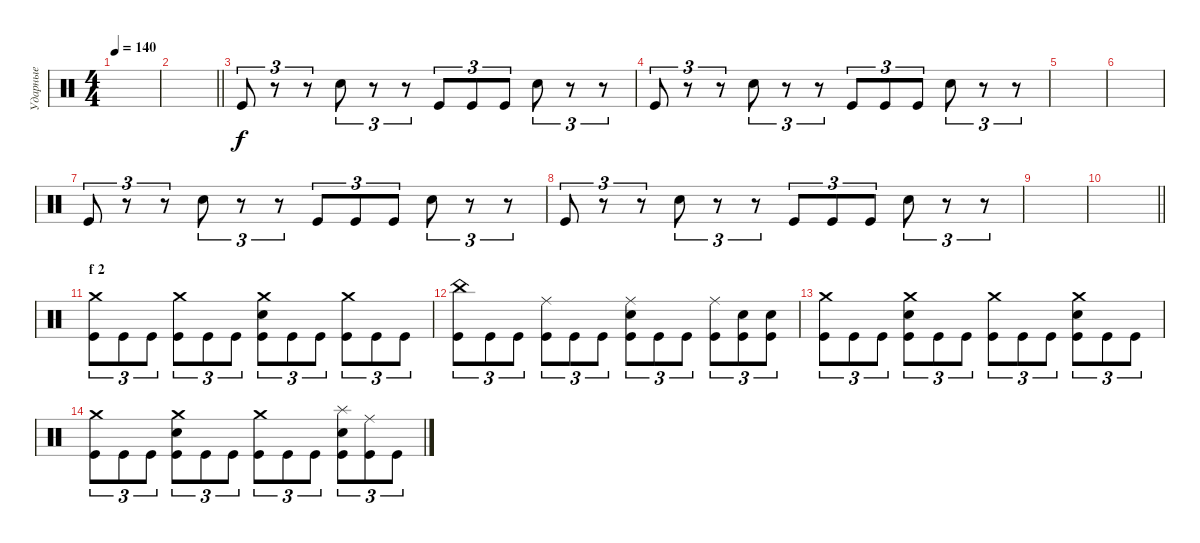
\track ("Ударные" "Ударные") {instrument percussion}
\staff {score}
\articulation defaults
\ts (4 4)
\tempo 140
\clef neutral
\ks c
|
\barLineRight lightlight
|
"Kick (hit)".8{tu (3 2)} r.8{tu (3 2)} r.8{tu (3 2)} "Electric Snare (hit)".8{tu (3 2)} r.8{tu (3 2)} r.8{tu (3 2)} "Kick (hit)".8{tu (3 2)} "Kick (hit)".8{tu (3 2)} "Kick (hit)".8{tu (3 2)} "Electric Snare (hit)".8{tu (3 2)} r.8{tu (3 2)} r.8{tu (3 2)} |
"Kick (hit)".8{tu (3 2)} r.8{tu (3 2)} r.8{tu (3 2)} "Electric Snare (hit)".8{tu (3 2)} r.8{tu (3 2)} r.8{tu (3 2)} "Kick (hit)".8{tu (3 2)} "Kick (hit)".8{tu (3 2)} "Kick (hit)".8{tu (3 2)} "Electric Snare (hit)".8{tu (3 2)} r.8{tu (3 2)} r.8{tu (3 2)} |
|
|
"Kick (hit)".8{tu (3 2)} r.8{tu (3 2)} r.8{tu (3 2)} "Electric Snare (hit)".8{tu (3 2)} r.8{tu (3 2)} r.8{tu (3 2)} "Kick (hit)".8{tu (3 2)} "Kick (hit)".8{tu (3 2)} "Kick (hit)".8{tu (3 2)} "Electric Snare (hit)".8{tu (3 2)} r.8{tu (3 2)} r.8{tu (3 2)} |
"Kick (hit)".8{tu (3 2)} r.8{tu (3 2)} r.8{tu (3 2)} "Electric Snare (hit)".8{tu (3 2)} r.8{tu (3 2)} r.8{tu (3 2)} "Kick (hit)".8{tu (3 2)} "Kick (hit)".8{tu (3 2)} "Kick (hit)".8{tu (3 2)} "Electric Snare (hit)".8{tu (3 2)} r.8{tu (3 2)} r.8{tu (3 2)} |
|
\barLineRight lightlight
|
\section ("" "f 2")
("Crash medium (hit)" "Kick (hit)").8{tu (3 2)} "Kick (hit)".8{tu (3 2)} "Kick (hit)".8{tu (3 2)} ("Crash medium (hit)" "Kick (hit)").8{tu (3 2)} "Kick (hit)".8{tu (3 2)} "Kick (hit)".8{tu (3 2)} ("Crash medium (hit)" "Electric Snare (hit)" "Kick (hit)").8{tu (3 2)} "Kick (hit)".8{tu (3 2)} "Kick (hit)".8{tu (3 2)} ("Crash medium (hit)" "Kick (hit)").8{tu (3 2)} "Kick (hit)".8{tu (3 2)} "Kick (hit)".8{tu (3 2)} |
("China (hit)" "Kick (hit)").8{tu (3 2)} "Kick (hit)".8{tu (3 2)} "Kick (hit)".8{tu (3 2)} ("Ride (middle)" "Kick (hit)").8{tu (3 2)} "Kick (hit)".8{tu (3 2)} "Kick (hit)".8{tu (3 2)} ("Ride (middle)" "Electric Snare (hit)" "Kick (hit)").8{tu (3 2)} "Kick (hit)".8{tu (3 2)} "Kick (hit)".8{tu (3 2)} ("Ride (middle)" "Kick (hit)").8{tu (3 2)} ("Electric Snare (hit)" "Kick (hit)").8{tu (3 2)} ("Electric Snare (hit)" "Kick (hit)").8{tu (3 2)} |
("Crash medium (hit)" "Kick (hit)").8{tu (3 2)} "Kick (hit)".8{tu (3 2)} "Kick (hit)".8{tu (3 2)} ("Crash medium (hit)" "Electric Snare (hit)" "Kick (hit)").8{tu (3 2)} "Kick (hit)".8{tu (3 2)} "Kick (hit)".8{tu (3 2)} ("Crash medium (hit)" "Kick (hit)").8{tu (3 2)} "Kick (hit)".8{tu (3 2)} "Kick (hit)".8{tu (3 2)} ("Crash medium (hit)" "Electric Snare (hit)" "Kick (hit)").8{tu (3 2)} "Kick (hit)".8{tu (3 2)} "Kick (hit)".8{tu (3 2)} |
("Crash medium (hit)" "Kick (hit)").8{tu (3 2)} "Kick (hit)".8{tu (3 2)} "Kick (hit)".8{tu (3 2)} ("Crash medium (hit)" "Electric Snare (hit)" "Kick (hit)").8{tu (3 2)} "Kick (hit)".8{tu (3 2)} "Kick (hit)".8{tu (3 2)} ("Crash medium (hit)" "Kick (hit)").8{tu (3 2)} "Kick (hit)".8{tu (3 2)} "Kick (hit)".8{tu (3 2)} ("Splash (hit)" "Electric Snare (hit)" "Kick (hit)").8{tu (3 2)} ("Ride (middle)" "Kick (hit)").8{tu (3 2)} "Kick (hit)".8{tu (3 2)}
